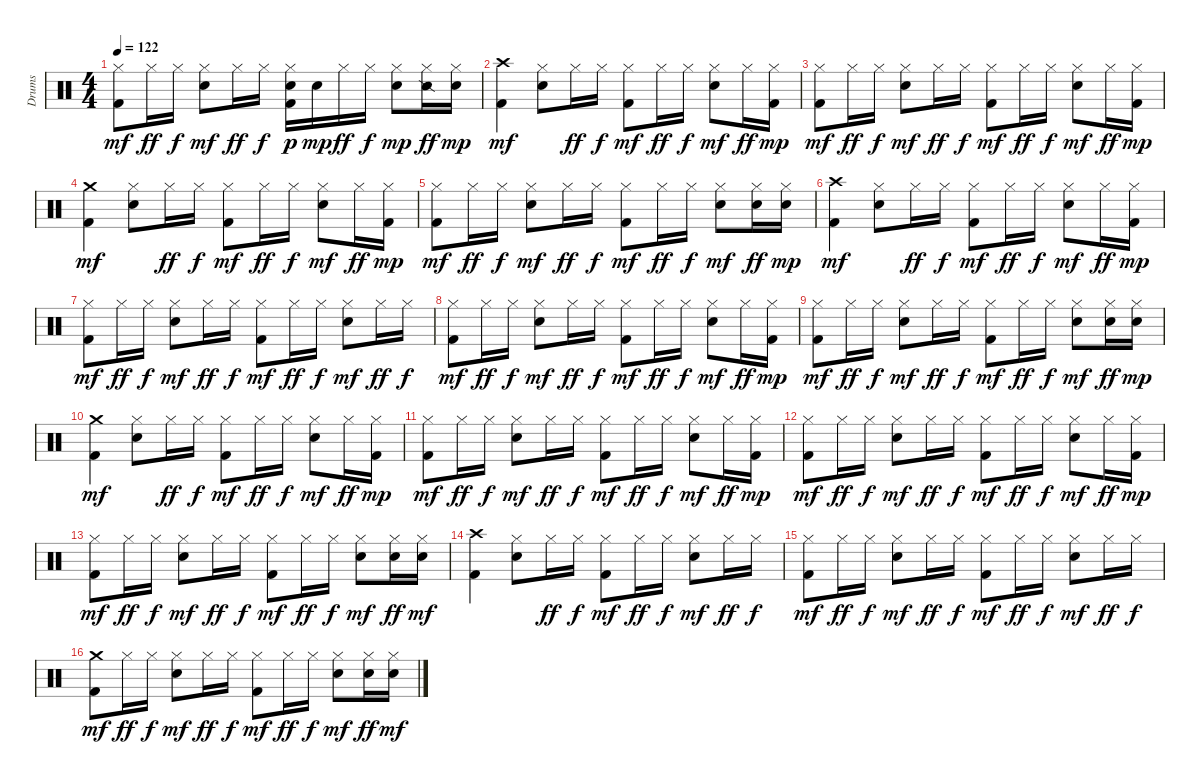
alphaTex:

\track ("Drums" "Drums") {instrument percussion}
\staff {score}
\articulation defaults
\ts (4 4)
\tempo 122
\clef neutral
\ks c
("Hi-Hat (closed)" "Kick (hit) 2").8{dy mf} "Hi-Hat (closed)".16{dy ff} "Hi-Hat (closed)".16{dy f} ("Hi-Hat (closed)" "Snare (hit) 2").8{dy mf} "Hi-Hat (closed)".16{dy ff} "Hi-Hat (closed)".16{dy f} ("Hi-Hat (closed)" "Kick (hit) 2" "Snare (hit) 2").16{dy p} "Snare (hit) 2".16{dy mp} "Hi-Hat (closed)".16{dy ff} "Hi-Hat (closed)".16{dy f} ("Hi-Hat (closed)" "Snare (hit) 2").8{dy mp} ("Snare (side stick) 2" "Hi-Hat (closed)").16{dy ff} ("Hi-Hat (closed)" "Snare (hit) 2").16{dy mp} |
("Kick (hit) 2" "Crash high (hit)").4{dy mf} ("Hi-Hat (closed)" "Snare (hit) 2").8 "Hi-Hat (closed)".16{dy ff} "Hi-Hat (closed)".16{dy f} ("Hi-Hat (closed)" "Kick (hit) 2").8{dy mf} "Hi-Hat (closed)".16{dy ff} "Hi-Hat (closed)".16{dy f} ("Hi-Hat (closed)" "Snare (hit) 2").8{dy mf} "Hi-Hat (closed)".16{dy ff} ("Hi-Hat (closed)" "Kick (hit) 2").16{dy mp} |
("Hi-Hat (closed)" "Kick (hit) 2").8{dy mf} "Hi-Hat (closed)".16{dy ff} "Hi-Hat (closed)".16{dy f} ("Hi-Hat (closed)" "Snare (hit) 2").8{dy mf} "Hi-Hat (closed)".16{dy ff} "Hi-Hat (closed)".16{dy f} ("Hi-Hat (closed)" "Kick (hit) 2").8{dy mf} "Hi-Hat (closed)".16{dy ff} "Hi-Hat (closed)".16{dy f} ("Hi-Hat (closed)" "Snare (hit) 2").8{dy mf} "Hi-Hat (closed)".16{dy ff} ("Hi-Hat (closed)" "Kick (hit) 2").16{dy mp} |
("Kick (hit) 2" "Crash medium (hit)").4{dy mf} ("Hi-Hat (closed)" "Snare (hit) 2").8 "Hi-Hat (closed)".16{dy ff} "Hi-Hat (closed)".16{dy f} ("Hi-Hat (closed)" "Kick (hit) 2").8{dy mf} "Hi-Hat (closed)".16{dy ff} "Hi-Hat (closed)".16{dy f} ("Hi-Hat (closed)" "Snare (hit) 2").8{dy mf} "Hi-Hat (closed)".16{dy ff} ("Hi-Hat (closed)" "Kick (hit) 2").16{dy mp} |
("Hi-Hat (closed)" "Kick (hit) 2").8{dy mf} "Hi-Hat (closed)".16{dy ff} "Hi-Hat (closed)".16{dy f} ("Hi-Hat (closed)" "Snare (hit) 2").8{dy mf} "Hi-Hat (closed)".16{dy ff} "Hi-Hat (closed)".16{dy f} ("Hi-Hat (closed)" "Kick (hit) 2").8{dy mf} "Hi-Hat (closed)".16{dy ff} "Hi-Hat (closed)".16{dy f} ("Hi-Hat (closed)" "Snare (hit) 2").8{dy mf} ("Snare (hit) 2" "Hi-Hat (closed)").16{dy ff} ("Hi-Hat (closed)" "Snare (hit) 2").16{dy mp} |
("Kick (hit) 2" "Crash high (hit)").4{dy mf} ("Hi-Hat (closed)" "Snare (hit) 2").8 "Hi-Hat (closed)".16{dy ff} "Hi-Hat (closed)".16{dy f} ("Hi-Hat (closed)" "Kick (hit) 2").8{dy mf} "Hi-Hat (closed)".16{dy ff} "Hi-Hat (closed)".16{dy f} ("Hi-Hat (closed)" "Snare (hit) 2").8{dy mf} "Hi-Hat (closed)".16{dy ff} ("Hi-Hat (closed)" "Kick (hit) 2").16{dy mp} |
("Hi-Hat (closed)" "Kick (hit) 2").8{dy mf} "Hi-Hat (closed)".16{dy ff} "Hi-Hat (closed)".16{dy f} ("Hi-Hat (closed)" "Snare (hit) 2").8{dy mf} "Hi-Hat (closed)".16{dy ff} "Hi-Hat (closed)".16{dy f} ("Hi-Hat (closed)" "Kick (hit) 2").8{dy mf} "Hi-Hat (closed)".16{dy ff} "Hi-Hat (closed)".16{dy f} ("Hi-Hat (closed)" "Snare (hit) 2").8{dy mf} "Hi-Hat (closed)".16{dy ff} "Hi-Hat (closed)".16{dy f} |
("Hi-Hat (closed)" "Kick (hit) 2").8{dy mf} "Hi-Hat (closed)".16{dy ff} "Hi-Hat (closed)".16{dy f} ("Hi-Hat (closed)" "Snare (hit) 2").8{dy mf} "Hi-Hat (closed)".16{dy ff} "Hi-Hat (closed)".16{dy f} ("Hi-Hat (closed)" "Kick (hit) 2").8{dy mf} "Hi-Hat (closed)".16{dy ff} "Hi-Hat (closed)".16{dy f} ("Hi-Hat (closed)" "Snare (hit) 2").8{dy mf} "Hi-Hat (closed)".16{dy ff} ("Hi-Hat (closed)" "Kick (hit) 2").16{dy mp} |
("Hi-Hat (closed)" "Kick (hit) 2").8{dy mf} "Hi-Hat (closed)".16{dy ff} "Hi-Hat (closed)".16{dy f} ("Hi-Hat (closed)" "Snare (hit) 2").8{dy mf} "Hi-Hat (closed)".16{dy ff} "Hi-Hat (closed)".16{dy f} ("Hi-Hat (closed)" "Kick (hit) 2").8{dy mf} "Hi-Hat (closed)".16{dy ff} "Hi-Hat (closed)".16{dy f} ("Hi-Hat (closed)" "Snare (hit) 2").8{dy mf} ("Snare (hit) 2" "Hi-Hat (closed)").16{dy ff} ("Hi-Hat (closed)" "Snare (hit) 2").16{dy mp} |
("Kick (hit) 2" "Crash medium (hit)").4{dy mf} ("Hi-Hat (closed)" "Snare (hit) 2").8 "Hi-Hat (closed)".16{dy ff} "Hi-Hat (closed)".16{dy f} ("Hi-Hat (closed)" "Kick (hit) 2").8{dy mf} "Hi-Hat (closed)".16{dy ff} "Hi-Hat (closed)".16{dy f} ("Hi-Hat (closed)" "Snare (hit) 2").8{dy mf} "Hi-Hat (closed)".16{dy ff} ("Hi-Hat (closed)" "Kick (hit) 2").16{dy mp} |
("Hi-Hat (closed)" "Kick (hit) 2").8{dy mf} "Hi-Hat (closed)".16{dy ff} "Hi-Hat (closed)".16{dy f} ("Hi-Hat (closed)" "Snare (hit) 2").8{dy mf} "Hi-Hat (closed)".16{dy ff} "Hi-Hat (closed)".16{dy f} ("Hi-Hat (closed)" "Kick (hit) 2").8{dy mf} "Hi-Hat (closed)".16{dy ff} "Hi-Hat (closed)".16{dy f} ("Hi-Hat (closed)" "Snare (hit) 2").8{dy mf} "Hi-Hat (closed)".16{dy ff} ("Hi-Hat (closed)" "Kick (hit) 2").16{dy mp} |
("Hi-Hat (closed)" "Kick (hit) 2").8{dy mf} "Hi-Hat (closed)".16{dy ff} "Hi-Hat (closed)".16{dy f} ("Hi-Hat (closed)" "Snare (hit) 2").8{dy mf} "Hi-Hat (closed)".16{dy ff} "Hi-Hat (closed)".16{dy f} ("Hi-Hat (closed)" "Kick (hit) 2").8{dy mf} "Hi-Hat (closed)".16{dy ff} "Hi-Hat (closed)".16{dy f} ("Hi-Hat (closed)" "Snare (hit) 2").8{dy mf} "Hi-Hat (closed)".16{dy ff} ("Hi-Hat (closed)" "Kick (hit) 2").16{dy mp} |
("Hi-Hat (closed)" "Kick (hit) 2").8{dy mf} "Hi-Hat (closed)".16{dy ff} "Hi-Hat (closed)".16{dy f} ("Hi-Hat (closed)" "Snare (hit) 2").8{dy mf} "Hi-Hat (closed)".16{dy ff} "Hi-Hat (closed)".16{dy f} ("Hi-Hat (closed)" "Kick (hit) 2").8{dy mf} "Hi-Hat (closed)".16{dy ff} "Hi-Hat (closed)".16{dy f} ("Hi-Hat (closed)" "Snare (hit) 2").8{dy mf} ("Snare (hit) 2" "Hi-Hat (closed)").16{dy ff} ("Hi-Hat (closed)" "Snare (hit) 2").16{dy mf} |
("Kick (hit) 2" "Crash high (hit)").4 ("Hi-Hat (closed)" "Snare (hit) 2").8 "Hi-Hat (closed)".16{dy ff} "Hi-Hat (closed)".16{dy f} ("Hi-Hat (closed)" "Kick (hit) 2").8{dy mf} "Hi-Hat (closed)".16{dy ff} "Hi-Hat (closed)".16{dy f} ("Hi-Hat (closed)" "Snare (hit) 2").8{dy mf} "Hi-Hat (closed)".16{dy ff} "Hi-Hat (closed)".16{dy f} |
("Hi-Hat (closed)" "Kick (hit) 2").8{dy mf} "Hi-Hat (closed)".16{dy ff} "Hi-Hat (closed)".16{dy f} ("Hi-Hat (closed)" "Snare (hit) 2").8{dy mf} "Hi-Hat (closed)".16{dy ff} "Hi-Hat (closed)".16{dy f} ("Hi-Hat (closed)" "Kick (hit) 2").8{dy mf} "Hi-Hat (closed)".16{dy ff} "Hi-Hat (closed)".16{dy f} ("Hi-Hat (closed)" "Snare (hit) 2").8{dy mf} "Hi-Hat (closed)".16{dy ff} "Hi-Hat (closed)".16{dy f} |
("Kick (hit) 2" "Crash medium (hit)").8{dy mf} "Hi-Hat (closed)".16{dy ff} "Hi-Hat (closed)".16{dy f} ("Hi-Hat (closed)" "Snare (hit) 2").8{dy mf} "Hi-Hat (closed)".16{dy ff} "Hi-Hat (closed)".16{dy f} ("Hi-Hat (closed)" "Kick (hit) 2").8{dy mf} "Hi-Hat (closed)".16{dy ff} "Hi-Hat (closed)".16{dy f} ("Hi-Hat (closed)" "Snare (hit) 2").8{dy mf} ("Snare (hit) 2" "Hi-Hat (closed)").16{dy ff} ("Hi-Hat (closed)" "Snare (hit) 2").16{dy mf}
